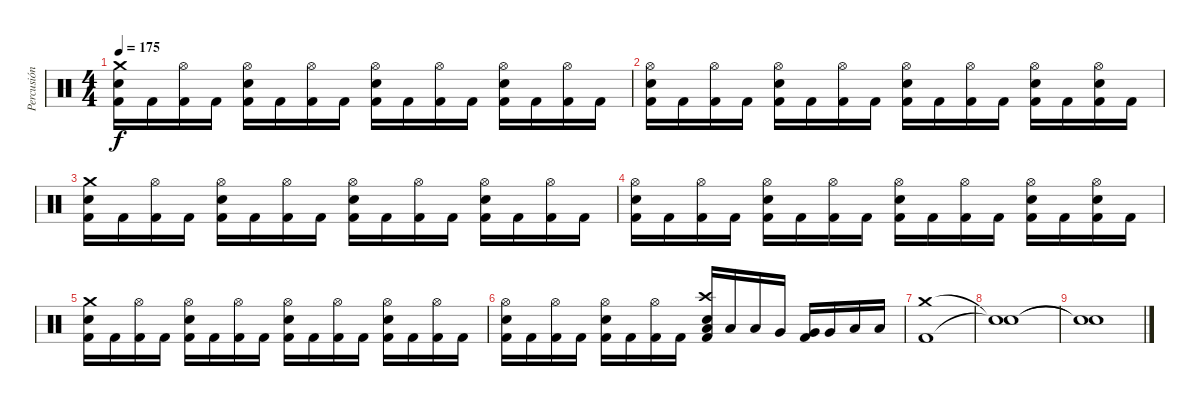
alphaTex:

\track ("Percusión" "Percusión") {instrument percussion}
\staff {score}
\articulation defaults
\ts (4 4)
\tempo 175
\clef neutral
\ks c
("Crash medium (hit)" "Electric Snare (hit)" "Kick (hit) 2").16{dy f} "Kick (hit) 2".16 ("Hi-Hat (open)" "Kick (hit) 2").16 "Kick (hit) 2".16 ("Hi-Hat (open)" "Electric Snare (hit)" "Kick (hit) 2").16 "Kick (hit) 2".16 ("Hi-Hat (open)" "Kick (hit) 2").16 "Kick (hit) 2".16 ("Hi-Hat (open)" "Electric Snare (hit)" "Kick (hit) 2").16 "Kick (hit) 2".16 ("Hi-Hat (open)" "Kick (hit) 2").16 "Kick (hit) 2".16 ("Hi-Hat (open)" "Electric Snare (hit)" "Kick (hit) 2").16 "Kick (hit) 2".16 ("Hi-Hat (open)" "Kick (hit) 2").16 "Kick (hit) 2".16 |
("Hi-Hat (open)" "Electric Snare (hit)" "Kick (hit) 2").16 "Kick (hit) 2".16 ("Hi-Hat (open)" "Kick (hit) 2").16 "Kick (hit) 2".16 ("Hi-Hat (open)" "Electric Snare (hit)" "Kick (hit) 2").16 "Kick (hit) 2".16 ("Hi-Hat (open)" "Kick (hit) 2").16 "Kick (hit) 2".16 ("Hi-Hat (open)" "Electric Snare (hit)" "Kick (hit) 2").16 "Kick (hit) 2".16 ("Hi-Hat (open)" "Kick (hit) 2").16 "Kick (hit) 2".16 ("Hi-Hat (open)" "Electric Snare (hit)" "Kick (hit) 2").16 "Kick (hit) 2".16 ("Hi-Hat (open)" "Electric Snare (hit)" "Kick (hit) 2").16 "Kick (hit) 2".16 |
("Crash medium (hit)" "Electric Snare (hit)" "Kick (hit) 2").16 "Kick (hit) 2".16 ("Hi-Hat (open)" "Kick (hit) 2").16 "Kick (hit) 2".16 ("Hi-Hat (open)" "Electric Snare (hit)" "Kick (hit) 2").16 "Kick (hit) 2".16 ("Hi-Hat (open)" "Kick (hit) 2").16 "Kick (hit) 2".16 ("Hi-Hat (open)" "Electric Snare (hit)" "Kick (hit) 2").16 "Kick (hit) 2".16 ("Hi-Hat (open)" "Kick (hit) 2").16 "Kick (hit) 2".16 ("Hi-Hat (open)" "Electric Snare (hit)" "Kick (hit) 2").16 "Kick (hit) 2".16 ("Hi-Hat (open)" "Kick (hit) 2").16 "Kick (hit) 2".16 |
("Hi-Hat (open)" "Electric Snare (hit)" "Kick (hit) 2").16 "Kick (hit) 2".16 ("Hi-Hat (open)" "Kick (hit) 2").16 "Kick (hit) 2".16 ("Hi-Hat (open)" "Electric Snare (hit)" "Kick (hit) 2").16 "Kick (hit) 2".16 ("Hi-Hat (open)" "Kick (hit) 2").16 "Kick (hit) 2".16 ("Hi-Hat (open)" "Electric Snare (hit)" "Kick (hit) 2").16 "Kick (hit) 2".16 ("Hi-Hat (open)" "Kick (hit) 2").16 "Kick (hit) 2".16 ("Hi-Hat (open)" "Electric Snare (hit)" "Kick (hit) 2").16 "Kick (hit) 2".16 ("Hi-Hat (open)" "Electric Snare (hit)" "Kick (hit) 2").16 "Kick (hit) 2".16 |
("Crash medium (hit)" "Electric Snare (hit)" "Kick (hit) 2").16 "Kick (hit) 2".16 ("Hi-Hat (open)" "Kick (hit) 2").16 "Kick (hit) 2".16 ("Hi-Hat (open)" "Electric Snare (hit)" "Kick (hit) 2").16 "Kick (hit) 2".16 ("Hi-Hat (open)" "Kick (hit) 2").16 "Kick (hit) 2".16 ("Hi-Hat (open)" "Electric Snare (hit)" "Kick (hit) 2").16 "Kick (hit) 2".16 ("Hi-Hat (open)" "Kick (hit) 2").16 "Kick (hit) 2".16 ("Hi-Hat (open)" "Electric Snare (hit)" "Kick (hit) 2").16 "Kick (hit) 2".16 ("Hi-Hat (open)" "Kick (hit) 2").16 "Kick (hit) 2".16 |
("Hi-Hat (open)" "Electric Snare (hit)" "Kick (hit) 2").16 "Kick (hit) 2".16 ("Hi-Hat (open)" "Kick (hit) 2").16 "Kick (hit) 2".16 ("Hi-Hat (open)" "Electric Snare (hit)" "Kick (hit) 2").16 "Kick (hit) 2".16 ("Hi-Hat (open)" "Kick (hit) 2").16 "Kick (hit) 2".16 ("Crash high (hit)" "Low Tom (hit)" "Electric Snare (hit)" "Kick (hit) 2").16 "Low Tom (hit)".16 "Low Tom (hit)".16 "Very Low Tom (hit)".16 ("Very Low Tom (hit)" "Kick (hit) 2").16 "Very Low Tom (hit)".16 "Low Floor Tom (hit)".16 "Low Floor Tom (hit)".16 |
("Crash medium (hit)" "Kick (hit) 2").1 |
("Snare (hit)"{t} "Snare (hit)"{t}).1 |
("Snare (hit)"{t} "Snare (hit)"{t}).1
